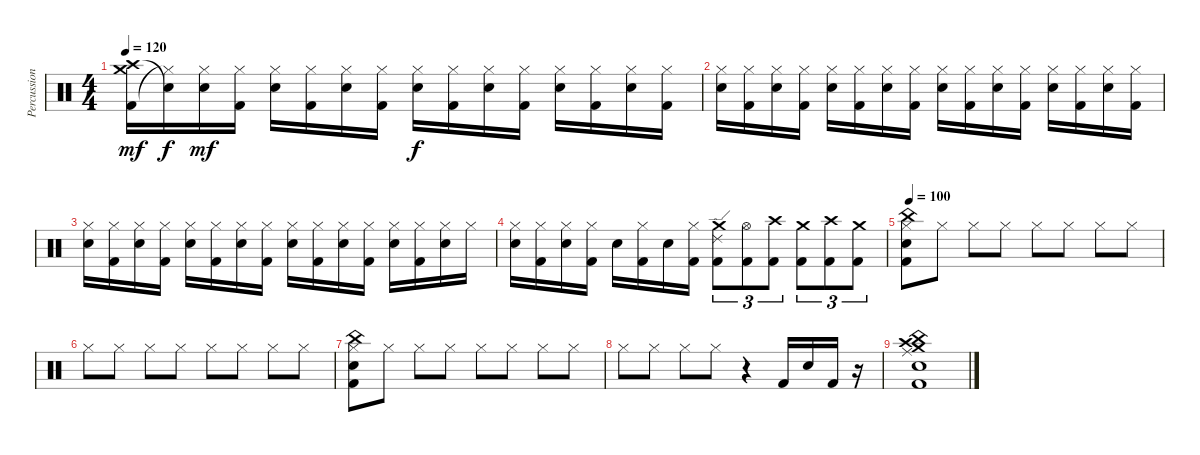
\track ("Percussions" "Percussion") {instrument percussion}
\staff {score}
\articulation defaults
\ts (4 4)
\tempo 120
\clef neutral
\ks c
("Kick (hit) 2" "Crash high (hit)" "Crash medium (hit)").16{dy mf} ("Hi-Hat (closed)"{t} "Snare (hit)"{t}).16{dy f} ("Snare (hit) 2" "Hi-Hat (closed)").16{dy mf} ("Kick (hit) 2" "Hi-Hat (closed)").16 ("Snare (hit) 2" "Hi-Hat (closed)").16 ("Kick (hit) 2" "Hi-Hat (closed)").16 ("Snare (hit) 2" "Hi-Hat (closed)").16 ("Kick (hit) 2" "Hi-Hat (closed)").16 ("Snare (hit) 2" "Hi-Hat (closed)").16{dy f} ("Kick (hit) 2" "Hi-Hat (closed)").16 ("Snare (hit) 2" "Hi-Hat (closed)").16 ("Kick (hit) 2" "Hi-Hat (closed)").16 ("Snare (hit) 2" "Hi-Hat (closed)").16 ("Kick (hit) 2" "Hi-Hat (closed)").16 ("Snare (hit) 2" "Hi-Hat (closed)").16 ("Kick (hit) 2" "Hi-Hat (closed)").16 |
("Snare (hit) 2" "Hi-Hat (closed)").16 ("Kick (hit) 2" "Hi-Hat (closed)").16 ("Snare (hit) 2" "Hi-Hat (closed)").16 ("Kick (hit) 2" "Hi-Hat (closed)").16 ("Snare (hit) 2" "Hi-Hat (closed)").16 ("Kick (hit) 2" "Hi-Hat (closed)").16 ("Snare (hit) 2" "Hi-Hat (closed)").16 ("Kick (hit) 2" "Hi-Hat (closed)").16 ("Snare (hit) 2" "Hi-Hat (closed)").16 ("Kick (hit) 2" "Hi-Hat (closed)").16 ("Snare (hit) 2" "Hi-Hat (closed)").16 ("Kick (hit) 2" "Hi-Hat (closed)").16 ("Snare (hit) 2" "Hi-Hat (closed)").16 ("Kick (hit) 2" "Hi-Hat (closed)").16 ("Snare (hit) 2" "Hi-Hat (closed)").16 ("Kick (hit) 2" "Hi-Hat (closed)").16 |
("Snare (hit) 2" "Hi-Hat (closed)").16 ("Kick (hit) 2" "Hi-Hat (closed)").16 ("Snare (hit) 2" "Hi-Hat (closed)").16 ("Kick (hit) 2" "Hi-Hat (closed)").16 ("Snare (hit) 2" "Hi-Hat (closed)").16 ("Kick (hit) 2" "Hi-Hat (closed)").16 ("Snare (hit) 2" "Hi-Hat (closed)").16 ("Kick (hit) 2" "Hi-Hat (closed)").16 ("Snare (hit) 2" "Hi-Hat (closed)").16 ("Kick (hit) 2" "Hi-Hat (closed)").16 ("Snare (hit) 2" "Hi-Hat (closed)").16 ("Kick (hit) 2" "Hi-Hat (closed)").16 ("Snare (hit) 2" "Hi-Hat (closed)").16 ("Kick (hit) 2" "Hi-Hat (closed)").16 ("Snare (hit) 2" "Hi-Hat (closed)").16 "Hi-Hat (closed)".16 |
("Snare (hit) 2" "Hi-Hat (closed)").16 ("Kick (hit) 2" "Hi-Hat (closed)").16 ("Snare (hit) 2" "Hi-Hat (closed)").16 ("Kick (hit) 2" "Hi-Hat (closed)").16 "Snare (hit) 2".16 ("Kick (hit) 2" "Hi-Hat (closed)").16 "Snare (hit) 2".16 ("Kick (hit) 2" "Hi-Hat (closed)").16 ("Kick (hit) 2" "Crash medium (hit)" "Ride (edge) 2").8{tu (3 2)} ("Kick (hit) 2" "Hi-Hat (open)").8{tu (3 2)} ("Kick (hit) 2" "Crash high (hit)").8{tu (3 2)} ("Kick (hit) 2" "Crash medium (hit)").8{tu (3 2)} ("Kick (hit) 2" "Crash high (hit)").8{tu (3 2)} ("Kick (hit) 2" "Crash medium (hit)").8{tu (3 2)} |
\tempo 100
("China (hit)" "Hi-Hat (closed)" "Kick (hit) 2" "Electric Snare (hit)").8 "Hi-Hat (closed)".8 "Hi-Hat (closed)".8 "Hi-Hat (closed)".8 "Hi-Hat (closed)".8 "Hi-Hat (closed)".8 "Hi-Hat (closed)".8 "Hi-Hat (closed)".8 |
"Hi-Hat (closed)".8 "Hi-Hat (closed)".8 "Hi-Hat (closed)".8 "Hi-Hat (closed)".8 "Hi-Hat (closed)".8 "Hi-Hat (closed)".8 "Hi-Hat (closed)".8 "Hi-Hat (closed)".8 |
("China (hit)" "Hi-Hat (closed)" "Kick (hit) 2" "Electric Snare (hit)").8 "Hi-Hat (closed)".8 "Hi-Hat (closed)".8 "Hi-Hat (closed)".8 "Hi-Hat (closed)".8 "Hi-Hat (closed)".8 "Hi-Hat (closed)".8 "Hi-Hat (closed)".8 |
"Hi-Hat (closed)".8 "Hi-Hat (closed)".8 "Hi-Hat (closed)".8 "Hi-Hat (closed)".8 r.4 "Kick (hit) 2".16 "Electric Snare (hit)".16 "Kick (hit) 2".16 r.16 |
("Ride (middle)" "China (hit)" "Crash high (hit)" "Crash medium (hit)" "Electric Snare (hit)" "Kick (hit) 2").1
